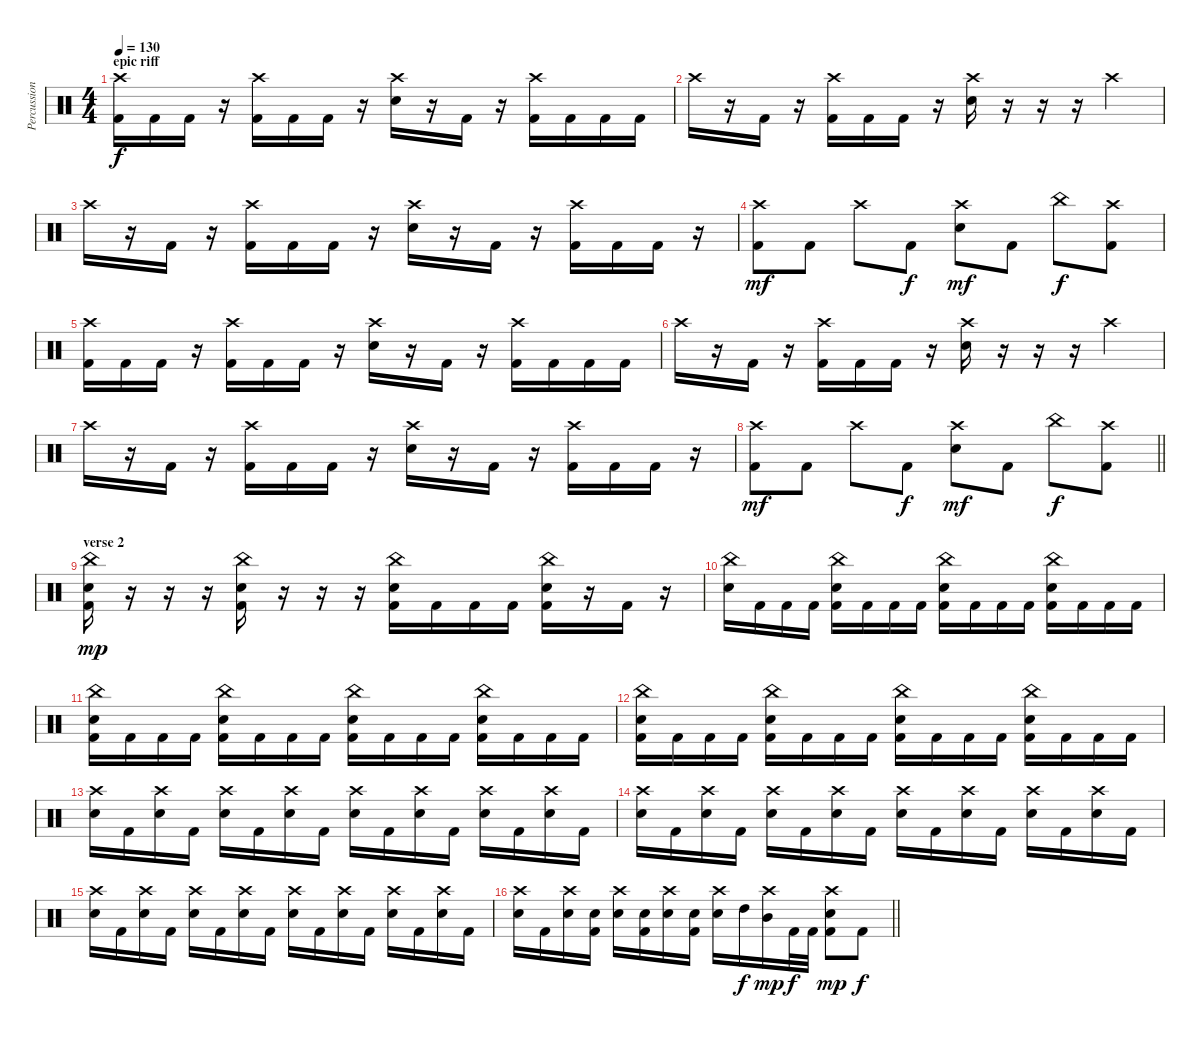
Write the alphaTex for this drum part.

\track ("Percussion" "Percussion") {instrument percussion}
\staff {score}
\articulation defaults
\ts (4 4)
\section ("" "epic riff")
\tempo 130
\clef neutral
\ks c
("Crash high (hit)" "Kick (hit) 2").16{dy f} "Kick (hit) 2".16 "Kick (hit) 2".16 r.16 ("Crash high (hit)" "Kick (hit) 2").16 "Kick (hit) 2".16 "Kick (hit) 2".16 r.16 ("Crash high (hit)" "Electric Snare (hit)").16 r.16 "Kick (hit) 2".16 r.16 ("Crash high (hit)" "Kick (hit) 2").16 "Kick (hit) 2".16 "Kick (hit) 2".16 "Kick (hit) 2".16 |
"Crash high (hit)".16 r.16 "Kick (hit) 2".16 r.16 ("Crash high (hit)" "Kick (hit) 2").16 "Kick (hit) 2".16 "Kick (hit) 2".16 r.16 ("Crash high (hit)" "Electric Snare (hit)").16 r.16 r.16 r.16 "Crash high (hit)".4 |
"Crash high (hit)".16 r.16 "Kick (hit) 2".16 r.16 ("Crash high (hit)" "Kick (hit) 2").16 "Kick (hit) 2".16 "Kick (hit) 2".16 r.16 ("Crash high (hit)" "Electric Snare (hit)").16 r.16 "Kick (hit) 2".16 r.16 ("Crash high (hit)" "Kick (hit) 2").16 "Kick (hit) 2".16 "Kick (hit) 2".16 r.16 |
("Crash high (hit)" "Kick (hit) 2").8{dy mf} "Kick (hit) 2".8 "Crash high (hit)".8 "Kick (hit) 2".8{dy f} ("Crash high (hit)" "Electric Snare (hit)").8{dy mf} "Kick (hit) 2".8 "China (hit)".8{dy f} ("Crash high (hit)" "Kick (hit) 2").8 |
("Crash high (hit)" "Kick (hit) 2").16 "Kick (hit) 2".16 "Kick (hit) 2".16 r.16 ("Crash high (hit)" "Kick (hit) 2").16 "Kick (hit) 2".16 "Kick (hit) 2".16 r.16 ("Crash high (hit)" "Electric Snare (hit)").16 r.16 "Kick (hit) 2".16 r.16 ("Crash high (hit)" "Kick (hit) 2").16 "Kick (hit) 2".16 "Kick (hit) 2".16 "Kick (hit) 2".16 |
"Crash high (hit)".16 r.16 "Kick (hit) 2".16 r.16 ("Crash high (hit)" "Kick (hit) 2").16 "Kick (hit) 2".16 "Kick (hit) 2".16 r.16 ("Crash high (hit)" "Electric Snare (hit)").16 r.16 r.16 r.16 "Crash high (hit)".4 |
"Crash high (hit)".16 r.16 "Kick (hit) 2".16 r.16 ("Crash high (hit)" "Kick (hit) 2").16 "Kick (hit) 2".16 "Kick (hit) 2".16 r.16 ("Crash high (hit)" "Electric Snare (hit)").16 r.16 "Kick (hit) 2".16 r.16 ("Crash high (hit)" "Kick (hit) 2").16 "Kick (hit) 2".16 "Kick (hit) 2".16 r.16 |
\barLineRight lightlight
("Crash high (hit)" "Kick (hit) 2").8{dy mf} "Kick (hit) 2".8 "Crash high (hit)".8 "Kick (hit) 2".8{dy f} ("Crash high (hit)" "Electric Snare (hit)").8{dy mf} "Kick (hit) 2".8 "China (hit)".8{dy f} ("Crash high (hit)" "Kick (hit) 2").8 |
\section ("" "verse 2")
("China (hit)" "Electric Snare (hit)" "Kick (hit) 2").16{dy mp} r.16 r.16 r.16 ("China (hit)" "Electric Snare (hit)" "Kick (hit) 2").16 r.16 r.16 r.16 ("China (hit)" "Electric Snare (hit)" "Kick (hit) 2").16 "Kick (hit) 2".16 "Kick (hit) 2".16 "Kick (hit) 2".16 ("China (hit)" "Electric Snare (hit)" "Kick (hit) 2").16 r.16 "Kick (hit) 2".16 r.16 |
("China (hit)" "Electric Snare (hit)").16 "Kick (hit) 2".16 "Kick (hit) 2".16 "Kick (hit) 2".16 ("China (hit)" "Electric Snare (hit)" "Kick (hit) 2").16 "Kick (hit) 2".16 "Kick (hit) 2".16 "Kick (hit) 2".16 ("China (hit)" "Electric Snare (hit)" "Kick (hit) 2").16 "Kick (hit) 2".16 "Kick (hit) 2".16 "Kick (hit) 2".16 ("China (hit)" "Electric Snare (hit)" "Kick (hit) 2").16 "Kick (hit) 2".16 "Kick (hit) 2".16 "Kick (hit) 2".16 |
("China (hit)" "Electric Snare (hit)" "Kick (hit) 2").16 "Kick (hit) 2".16 "Kick (hit) 2".16 "Kick (hit) 2".16 ("China (hit)" "Electric Snare (hit)" "Kick (hit) 2").16 "Kick (hit) 2".16 "Kick (hit) 2".16 "Kick (hit) 2".16 ("China (hit)" "Electric Snare (hit)" "Kick (hit) 2").16 "Kick (hit) 2".16 "Kick (hit) 2".16 "Kick (hit) 2".16 ("China (hit)" "Electric Snare (hit)" "Kick (hit) 2").16 "Kick (hit) 2".16 "Kick (hit) 2".16 "Kick (hit) 2".16 |
("China (hit)" "Electric Snare (hit)" "Kick (hit) 2").16 "Kick (hit) 2".16 "Kick (hit) 2".16 "Kick (hit) 2".16 ("China (hit)" "Electric Snare (hit)" "Kick (hit) 2").16 "Kick (hit) 2".16 "Kick (hit) 2".16 "Kick (hit) 2".16 ("China (hit)" "Electric Snare (hit)" "Kick (hit) 2").16 "Kick (hit) 2".16 "Kick (hit) 2".16 "Kick (hit) 2".16 ("China (hit)" "Electric Snare (hit)" "Kick (hit) 2").16 "Kick (hit) 2".16 "Kick (hit) 2".16 "Kick (hit) 2".16 |
("Crash high (hit)" "Electric Snare (hit)").16 "Kick (hit) 2".16 ("Crash high (hit)" "Electric Snare (hit)").16 "Kick (hit) 2".16 ("Crash high (hit)" "Electric Snare (hit)").16 "Kick (hit) 2".16 ("Crash high (hit)" "Electric Snare (hit)").16 "Kick (hit) 2".16 ("Crash high (hit)" "Electric Snare (hit)").16 "Kick (hit) 2".16 ("Crash high (hit)" "Electric Snare (hit)").16 "Kick (hit) 2".16 ("Crash high (hit)" "Electric Snare (hit)").16 "Kick (hit) 2".16 ("Crash high (hit)" "Electric Snare (hit)").16 "Kick (hit) 2".16 |
("Crash high (hit)" "Electric Snare (hit)").16 "Kick (hit) 2".16 ("Crash high (hit)" "Electric Snare (hit)").16 "Kick (hit) 2".16 ("Crash high (hit)" "Electric Snare (hit)").16 "Kick (hit) 2".16 ("Crash high (hit)" "Electric Snare (hit)").16 "Kick (hit) 2".16 ("Crash high (hit)" "Electric Snare (hit)").16 "Kick (hit) 2".16 ("Crash high (hit)" "Electric Snare (hit)").16 "Kick (hit) 2".16 ("Crash high (hit)" "Electric Snare (hit)").16 "Kick (hit) 2".16 ("Crash high (hit)" "Electric Snare (hit)").16 "Kick (hit) 2".16 |
("Crash high (hit)" "Electric Snare (hit)").16 "Kick (hit) 2".16 ("Crash high (hit)" "Electric Snare (hit)").16 "Kick (hit) 2".16 ("Crash high (hit)" "Electric Snare (hit)").16 "Kick (hit) 2".16 ("Crash high (hit)" "Electric Snare (hit)").16 "Kick (hit) 2".16 ("Crash high (hit)" "Electric Snare (hit)").16 "Kick (hit) 2".16 ("Crash high (hit)" "Electric Snare (hit)").16 "Kick (hit) 2".16 ("Crash high (hit)" "Electric Snare (hit)").16 "Kick (hit) 2".16 ("Crash high (hit)" "Electric Snare (hit)").16 "Kick (hit) 2".16 |
\barLineRight lightlight
("Crash high (hit)" "Electric Snare (hit)").16 "Kick (hit) 2".16 ("Crash high (hit)" "Electric Snare (hit)").16 ("Electric Snare (hit)" "Kick (hit) 2").16 ("Crash high (hit)" "Electric Snare (hit)").16 ("Electric Snare (hit)" "Kick (hit) 2").16 ("Crash high (hit)" "Electric Snare (hit)").16 ("Electric Snare (hit)" "Kick (hit) 2").16 ("Crash high (hit)" "Electric Snare (hit)").16 "High Tom (hit)".16{dy f} ("Crash high (hit)" "Mid Tom (hit)").16{dy mp} "Kick (hit) 2".32{dy f} "Kick (hit) 2".32 ("Crash high (hit)" "Electric Snare (hit)" "Kick (hit) 2").8{dy mp} "Kick (hit) 2".8{dy f}
